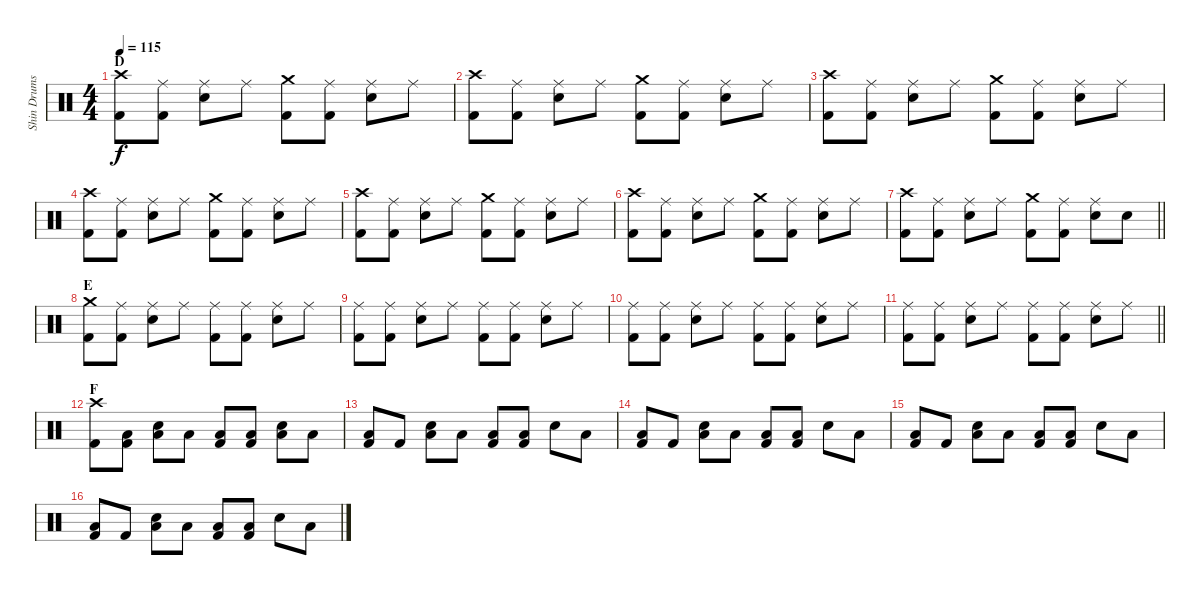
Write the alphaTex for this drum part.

\track ("Shin Drums" "Shin Drums") {instrument percussion}
\staff {score}
\articulation defaults
\ts (4 4)
\section ("" "D")
\tempo 115
\clef neutral
\ks c
("Crash high (hit)" "Kick (hit) 2").8{dy f} ("Ride (middle)" "Kick (hit) 2").8 ("Ride (middle)" "Snare (hit) 2").8 "Ride (middle)".8 ("Crash medium (hit)" "Kick (hit) 2").8 ("Ride (middle)" "Kick (hit) 2").8 ("Ride (middle)" "Snare (hit) 2").8 "Ride (middle)".8 |
("Crash high (hit)" "Kick (hit) 2").8 ("Ride (middle)" "Kick (hit) 2").8 ("Ride (middle)" "Snare (hit) 2").8 "Ride (middle)".8 ("Crash medium (hit)" "Kick (hit) 2").8 ("Ride (middle)" "Kick (hit) 2").8 ("Ride (middle)" "Snare (hit) 2").8 "Ride (middle)".8 |
("Crash high (hit)" "Kick (hit) 2").8 ("Ride (middle)" "Kick (hit) 2").8 ("Ride (middle)" "Snare (hit) 2").8 "Ride (middle)".8 ("Crash medium (hit)" "Kick (hit) 2").8 ("Ride (middle)" "Kick (hit) 2").8 ("Ride (middle)" "Snare (hit) 2").8 "Ride (middle)".8 |
("Crash high (hit)" "Kick (hit) 2").8 ("Ride (middle)" "Kick (hit) 2").8 ("Ride (middle)" "Snare (hit) 2").8 "Ride (middle)".8 ("Crash medium (hit)" "Kick (hit) 2").8 ("Ride (middle)" "Kick (hit) 2").8 ("Ride (middle)" "Snare (hit) 2").8 "Ride (middle)".8 |
("Crash high (hit)" "Kick (hit) 2").8 ("Ride (middle)" "Kick (hit) 2").8 ("Ride (middle)" "Snare (hit) 2").8 "Ride (middle)".8 ("Crash medium (hit)" "Kick (hit) 2").8 ("Ride (middle)" "Kick (hit) 2").8 ("Ride (middle)" "Snare (hit) 2").8 "Ride (middle)".8 |
("Crash high (hit)" "Kick (hit) 2").8 ("Ride (middle)" "Kick (hit) 2").8 ("Ride (middle)" "Snare (hit) 2").8 "Ride (middle)".8 ("Crash medium (hit)" "Kick (hit) 2").8 ("Ride (middle)" "Kick (hit) 2").8 ("Ride (middle)" "Snare (hit) 2").8 "Ride (middle)".8 |
\barLineRight lightlight
("Crash high (hit)" "Kick (hit) 2").8 ("Ride (middle)" "Kick (hit) 2").8 ("Ride (middle)" "Snare (hit) 2").8 "Ride (middle)".8 ("Crash medium (hit)" "Kick (hit) 2").8 ("Ride (middle)" "Kick (hit) 2").8 ("Ride (middle)" "Snare (hit) 2").8 "Snare (hit) 2".8 |
\section ("" "E")
("Crash medium (hit)" "Kick (hit) 2").8 ("Ride (middle)" "Kick (hit) 2").8 ("Ride (middle)" "Snare (hit) 2").8 "Ride (middle)".8 ("Ride (middle)" "Kick (hit) 2").8 ("Ride (middle)" "Kick (hit) 2").8 ("Ride (middle)" "Snare (hit) 2").8 "Ride (middle)".8 |
("Ride (middle)" "Kick (hit) 2").8 ("Ride (middle)" "Kick (hit) 2").8 ("Ride (middle)" "Snare (hit) 2").8 "Ride (middle)".8 ("Ride (middle)" "Kick (hit) 2").8 ("Ride (middle)" "Kick (hit) 2").8 ("Ride (middle)" "Snare (hit) 2").8 "Ride (middle)".8 |
("Ride (middle)" "Kick (hit) 2").8 ("Ride (middle)" "Kick (hit) 2").8 ("Ride (middle)" "Snare (hit) 2").8 "Ride (middle)".8 ("Ride (middle)" "Kick (hit) 2").8 ("Ride (middle)" "Kick (hit) 2").8 ("Ride (middle)" "Snare (hit) 2").8 "Ride (middle)".8 |
\barLineRight lightlight
("Ride (middle)" "Kick (hit) 2").8 ("Ride (middle)" "Kick (hit) 2").8 ("Ride (middle)" "Snare (hit) 2").8 "Ride (middle)".8 ("Ride (middle)" "Kick (hit) 2").8 ("Ride (middle)" "Kick (hit) 2").8 ("Ride (middle)" "Snare (hit) 2").8 "Ride (middle)".8 |
\section ("" "F")
("Crash high (hit)" "Kick (hit) 2").8 ("Low Floor Tom (hit)" "Kick (hit) 2").8 ("Low Floor Tom (hit)" "Snare (hit) 2").8 "Low Floor Tom (hit)".8 ("Low Floor Tom (hit)" "Kick (hit) 2").8 ("Low Floor Tom (hit)" "Kick (hit) 2").8 ("Low Floor Tom (hit)" "Snare (hit) 2").8 "Low Floor Tom (hit)".8 |
("Low Floor Tom (hit)" "Kick (hit) 2").8 "Kick (hit) 2".8 ("Low Floor Tom (hit)" "Snare (hit) 2").8 "Low Floor Tom (hit)".8 ("Low Floor Tom (hit)" "Kick (hit) 2").8 ("Low Floor Tom (hit)" "Kick (hit) 2").8 "Snare (hit) 2".8 "Low Floor Tom (hit)".8 |
("Low Floor Tom (hit)" "Kick (hit) 2").8 "Kick (hit) 2".8 ("Low Floor Tom (hit)" "Snare (hit) 2").8 "Low Floor Tom (hit)".8 ("Low Floor Tom (hit)" "Kick (hit) 2").8 ("Low Floor Tom (hit)" "Kick (hit) 2").8 "Snare (hit) 2".8 "Low Floor Tom (hit)".8 |
("Low Floor Tom (hit)" "Kick (hit) 2").8 "Kick (hit) 2".8 ("Low Floor Tom (hit)" "Snare (hit) 2").8 "Low Floor Tom (hit)".8 ("Low Floor Tom (hit)" "Kick (hit) 2").8 ("Low Floor Tom (hit)" "Kick (hit) 2").8 "Snare (hit) 2".8 "Low Floor Tom (hit)".8 |
("Low Floor Tom (hit)" "Kick (hit) 2").8 "Kick (hit) 2".8 ("Low Floor Tom (hit)" "Snare (hit) 2").8 "Low Floor Tom (hit)".8 ("Low Floor Tom (hit)" "Kick (hit) 2").8 ("Low Floor Tom (hit)" "Kick (hit) 2").8 "Snare (hit) 2".8 "Low Floor Tom (hit)".8
